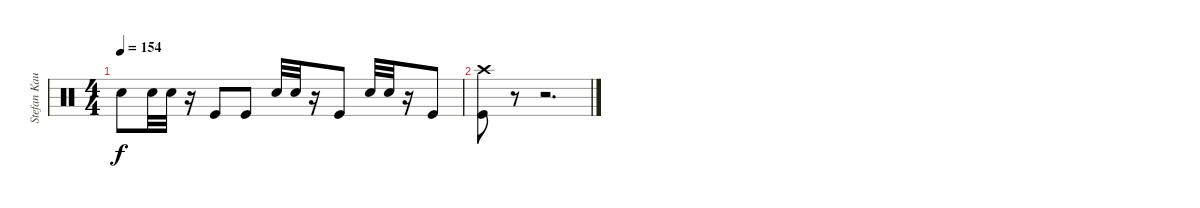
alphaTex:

\track ("Stefan Kaufmann" "Stefan Kau") {instrument percussion}
\staff {score}
\articulation defaults
\ts (4 4)
\tempo 154
\clef neutral
\ks c "Snare (hit) 2".8{dy f} "Snare (hit) 2".32 "Snare (hit) 2".32
r.16 "Kick (hit)".8 "Kick (hit)".8 "Snare (hit) 2".32 "Snare (hit) 2".32 r.16 "Kick (hit)".8 "Snare (hit) 2".32 "Snare (hit) 2".32 r.16 "Kick (hit)".8 |
("Crash high (hit)" "Kick (hit)").8 r.8 r.2{d}
